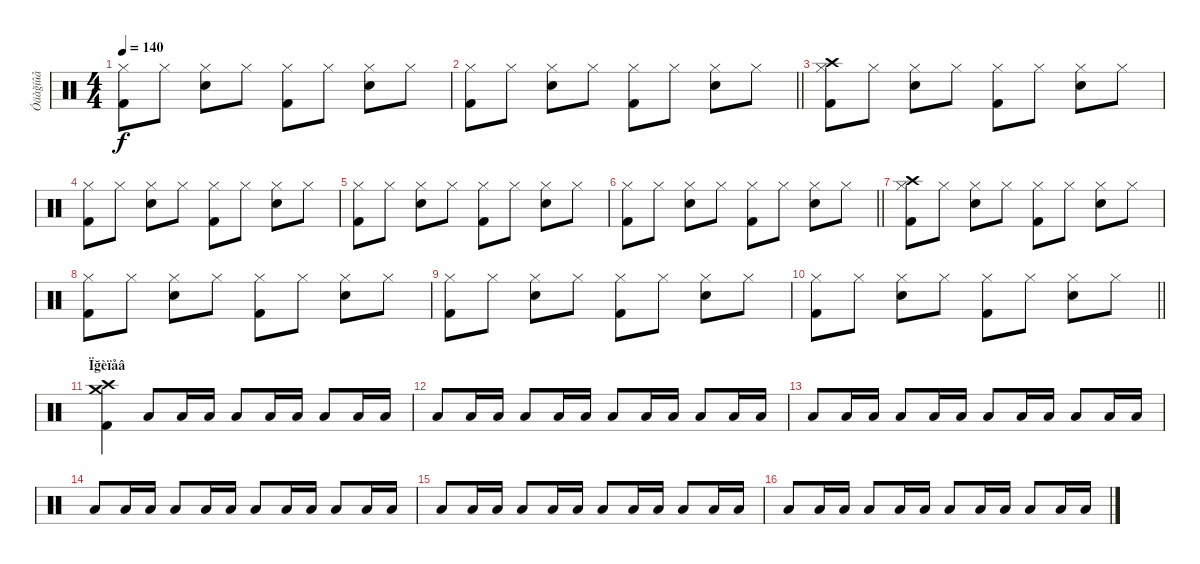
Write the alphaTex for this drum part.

\track ("Óäàğíûå" "Óäàğíûå") {instrument percussion}
\staff {score}
\articulation defaults
\ts (4 4)
\tempo 140
\clef neutral
\ks c
("Hi-Hat (closed)" "Kick (hit) 2").8{dy f} "Hi-Hat (closed)".8 ("Hi-Hat (closed)" "Snare (hit) 2").8 "Hi-Hat (closed)".8 ("Hi-Hat (closed)" "Kick (hit) 2").8 "Hi-Hat (closed)".8 ("Hi-Hat (closed)" "Snare (hit) 2").8 "Hi-Hat (closed)".8 |
\barLineRight lightlight
("Hi-Hat (closed)" "Kick (hit) 2").8 "Hi-Hat (closed)".8 ("Hi-Hat (closed)" "Snare (hit) 2").8 "Hi-Hat (closed)".8 ("Hi-Hat (closed)" "Kick (hit) 2").8 "Hi-Hat (closed)".8 ("Hi-Hat (closed)" "Snare (hit) 2").8 "Hi-Hat (closed)".8 |
("Hi-Hat (closed)" "Kick (hit) 2" "Crash high (hit)").8 "Hi-Hat (closed)".8 ("Hi-Hat (closed)" "Snare (hit) 2").8 "Hi-Hat (closed)".8 ("Hi-Hat (closed)" "Kick (hit) 2").8 "Hi-Hat (closed)".8 ("Hi-Hat (closed)" "Snare (hit) 2").8 "Hi-Hat (closed)".8 |
("Hi-Hat (closed)" "Kick (hit) 2").8 "Hi-Hat (closed)".8 ("Hi-Hat (closed)" "Snare (hit) 2").8 "Hi-Hat (closed)".8 ("Hi-Hat (closed)" "Kick (hit) 2").8 "Hi-Hat (closed)".8 ("Hi-Hat (closed)" "Snare (hit) 2").8 "Hi-Hat (closed)".8 |
("Hi-Hat (closed)" "Kick (hit) 2").8 "Hi-Hat (closed)".8 ("Hi-Hat (closed)" "Snare (hit) 2").8 "Hi-Hat (closed)".8 ("Hi-Hat (closed)" "Kick (hit) 2").8 "Hi-Hat (closed)".8 ("Hi-Hat (closed)" "Snare (hit) 2").8 "Hi-Hat (closed)".8 |
\barLineRight lightlight
("Hi-Hat (closed)" "Kick (hit) 2").8 "Hi-Hat (closed)".8 ("Hi-Hat (closed)" "Snare (hit) 2").8 "Hi-Hat (closed)".8 ("Hi-Hat (closed)" "Kick (hit) 2").8 "Hi-Hat (closed)".8 ("Hi-Hat (closed)" "Snare (hit) 2").8 "Hi-Hat (closed)".8 |
("Hi-Hat (closed)" "Kick (hit) 2" "Crash high (hit)").8 "Hi-Hat (closed)".8 ("Hi-Hat (closed)" "Snare (hit) 2").8 "Hi-Hat (closed)".8 ("Hi-Hat (closed)" "Kick (hit) 2").8 "Hi-Hat (closed)".8 ("Hi-Hat (closed)" "Snare (hit) 2").8 "Hi-Hat (closed)".8 |
("Hi-Hat (closed)" "Kick (hit) 2").8 "Hi-Hat (closed)".8 ("Hi-Hat (closed)" "Snare (hit) 2").8 "Hi-Hat (closed)".8 ("Hi-Hat (closed)" "Kick (hit) 2").8 "Hi-Hat (closed)".8 ("Hi-Hat (closed)" "Snare (hit) 2").8 "Hi-Hat (closed)".8 |
("Hi-Hat (closed)" "Kick (hit) 2").8 "Hi-Hat (closed)".8 ("Hi-Hat (closed)" "Snare (hit) 2").8 "Hi-Hat (closed)".8 ("Hi-Hat (closed)" "Kick (hit) 2").8 "Hi-Hat (closed)".8 ("Hi-Hat (closed)" "Snare (hit) 2").8 "Hi-Hat (closed)".8 |
\barLineRight lightlight
("Hi-Hat (closed)" "Kick (hit) 2").8 "Hi-Hat (closed)".8 ("Hi-Hat (closed)" "Snare (hit) 2").8 "Hi-Hat (closed)".8 ("Hi-Hat (closed)" "Kick (hit) 2").8 "Hi-Hat (closed)".8 ("Hi-Hat (closed)" "Snare (hit) 2").8 "Hi-Hat (closed)".8 |
\section ("" "Ïğèïåâ")
("Crash high (hit)" "Kick (hit) 2" "Crash medium (hit)").4 "Low Tom (hit)".8 "Low Tom (hit)".16 "Low Tom (hit)".16 "Low Tom (hit)".8 "Low Tom (hit)".16 "Low Tom (hit)".16 "Low Tom (hit)".8 "Low Tom (hit)".16 "Low Tom (hit)".16 |
"Low Tom (hit)".8 "Low Tom (hit)".16 "Low Tom (hit)".16 "Low Tom (hit)".8 "Low Tom (hit)".16 "Low Tom (hit)".16 "Low Tom (hit)".8 "Low Tom (hit)".16 "Low Tom (hit)".16 "Low Tom (hit)".8 "Low Tom (hit)".16 "Low Tom (hit)".16 |
"Low Tom (hit)".8 "Low Tom (hit)".16 "Low Tom (hit)".16 "Low Tom (hit)".8 "Low Tom (hit)".16 "Low Tom (hit)".16 "Low Tom (hit)".8 "Low Tom (hit)".16 "Low Tom (hit)".16 "Low Tom (hit)".8 "Low Tom (hit)".16 "Low Tom (hit)".16 |
"Low Tom (hit)".8 "Low Tom (hit)".16 "Low Tom (hit)".16 "Low Tom (hit)".8 "Low Tom (hit)".16 "Low Tom (hit)".16 "Low Tom (hit)".8 "Low Tom (hit)".16 "Low Tom (hit)".16 "Low Tom (hit)".8 "Low Tom (hit)".16 "Low Tom (hit)".16 |
"Low Tom (hit)".8 "Low Tom (hit)".16 "Low Tom (hit)".16 "Low Tom (hit)".8 "Low Tom (hit)".16 "Low Tom (hit)".16 "Low Tom (hit)".8 "Low Tom (hit)".16 "Low Tom (hit)".16 "Low Tom (hit)".8 "Low Tom (hit)".16 "Low Tom (hit)".16 |
"Low Tom (hit)".8 "Low Tom (hit)".16 "Low Tom (hit)".16 "Low Tom (hit)".8 "Low Tom (hit)".16 "Low Tom (hit)".16 "Low Tom (hit)".8 "Low Tom (hit)".16 "Low Tom (hit)".16 "Low Tom (hit)".8 "Low Tom (hit)".16 "Low Tom (hit)".16
